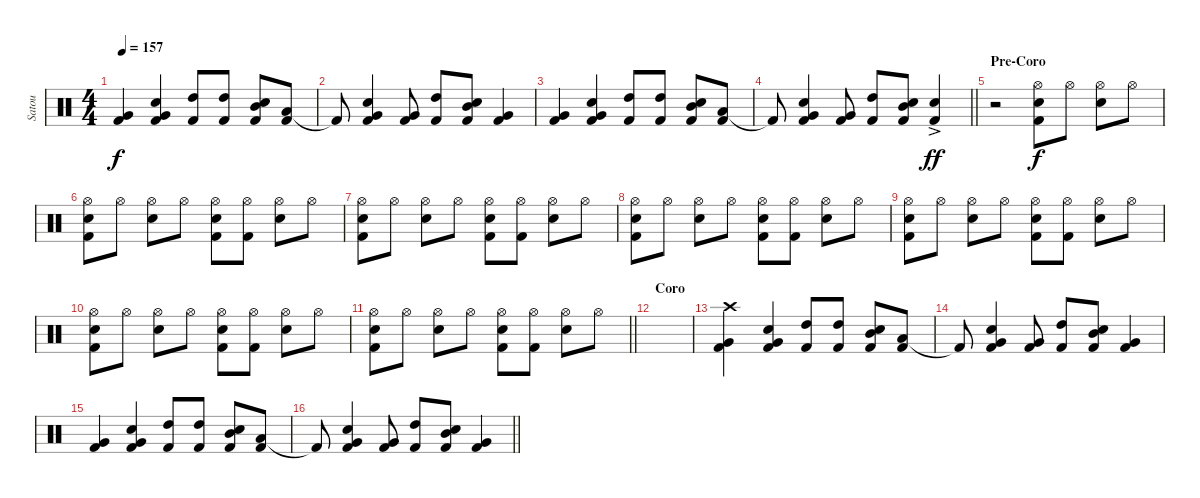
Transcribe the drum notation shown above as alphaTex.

\track ("Satou" "Satou") {instrument percussion}
\staff {score}
\articulation defaults
\ts (4 4)
\tempo 157
\clef neutral
\ks c
("Very Low Tom (hit)" "Kick (hit) 2").4{dy f} ("Very Low Tom (hit)" "Kick (hit) 2" "Snare (hit) 2").4 ("High Tom (hit)" "Kick (hit) 2").8 ("High Tom (hit)" "Kick (hit) 2").8 ("Mid Tom (hit)" "Kick (hit) 2" "Snare (hit) 2").8 ("Low Tom (hit)" "Kick (hit) 2").8 |
"Kick (hit) 2"{t}.8 ("Very Low Tom (hit)" "Kick (hit) 2" "Snare (hit) 2").4 ("Very Low Tom (hit)" "Kick (hit) 2").8 ("High Tom (hit)" "Kick (hit) 2").8 ("Mid Tom (hit)" "Kick (hit) 2" "Snare (hit) 2").8 ("Very Low Tom (hit)" "Kick (hit) 2").4 |
("Very Low Tom (hit)" "Kick (hit) 2").4 ("Very Low Tom (hit)" "Kick (hit) 2" "Snare (hit) 2").4 ("High Tom (hit)" "Kick (hit) 2").8 ("High Tom (hit)" "Kick (hit) 2").8 ("Mid Tom (hit)" "Kick (hit) 2" "Snare (hit) 2").8 ("Low Tom (hit)" "Kick (hit) 2").8 |
\barLineRight lightlight "Kick (hit) 2"{t}.8
("Very Low Tom (hit)" "Kick (hit) 2" "Snare (hit) 2").4 ("Very Low Tom (hit)" "Kick (hit) 2").8 ("High Tom (hit)" "Kick (hit) 2").8 ("Mid Tom (hit)" "Kick (hit) 2" "Snare (hit) 2").8 ("Snare (hit) 2"{ac} "Kick (hit) 2").4{dy ff} |
\section ("" "Pre-Coro")
r.2 ("Hi-Hat (open)" "Kick (hit) 2" "Snare (hit) 2").8{dy f} "Hi-Hat (open)".8 ("Hi-Hat (open)" "Snare (hit) 2").8 "Hi-Hat (open)".8 |
("Hi-Hat (open)" "Kick (hit) 2" "Snare (hit) 2").8 "Hi-Hat (open)".8 ("Hi-Hat (open)" "Snare (hit) 2").8 "Hi-Hat (open)".8 ("Hi-Hat (open)" "Kick (hit) 2" "Snare (hit) 2").8 ("Hi-Hat (open)" "Kick (hit) 2").8 ("Hi-Hat (open)" "Snare (hit) 2").8 "Hi-Hat (open)".8 |
("Hi-Hat (open)" "Kick (hit) 2" "Snare (hit) 2").8 "Hi-Hat (open)".8 ("Hi-Hat (open)" "Snare (hit) 2").8 "Hi-Hat (open)".8 ("Hi-Hat (open)" "Kick (hit) 2" "Snare (hit) 2").8 ("Hi-Hat (open)" "Kick (hit) 2").8 ("Hi-Hat (open)" "Snare (hit) 2").8 "Hi-Hat (open)".8 |
("Hi-Hat (open)" "Kick (hit) 2" "Snare (hit) 2").8 "Hi-Hat (open)".8 ("Hi-Hat (open)" "Snare (hit) 2").8 "Hi-Hat (open)".8 ("Hi-Hat (open)" "Kick (hit) 2" "Snare (hit) 2").8 ("Hi-Hat (open)" "Kick (hit) 2").8 ("Hi-Hat (open)" "Snare (hit) 2").8 "Hi-Hat (open)".8 |
("Hi-Hat (open)" "Kick (hit) 2" "Snare (hit) 2").8 "Hi-Hat (open)".8 ("Hi-Hat (open)" "Snare (hit) 2").8 "Hi-Hat (open)".8 ("Hi-Hat (open)" "Kick (hit) 2" "Snare (hit) 2").8 ("Hi-Hat (open)" "Kick (hit) 2").8 ("Hi-Hat (open)" "Snare (hit) 2").8 "Hi-Hat (open)".8 |
("Hi-Hat (open)" "Kick (hit) 2" "Snare (hit) 2").8 "Hi-Hat (open)".8 ("Hi-Hat (open)" "Snare (hit) 2").8 "Hi-Hat (open)".8 ("Hi-Hat (open)" "Kick (hit) 2" "Snare (hit) 2").8 ("Hi-Hat (open)" "Kick (hit) 2").8 ("Hi-Hat (open)" "Snare (hit) 2").8 "Hi-Hat (open)".8 |
\barLineRight lightlight
("Hi-Hat (open)" "Kick (hit) 2" "Snare (hit) 2").8 "Hi-Hat (open)".8 ("Hi-Hat (open)" "Snare (hit) 2").8 "Hi-Hat (open)".8 ("Hi-Hat (open)" "Kick (hit) 2" "Snare (hit) 2").8 ("Hi-Hat (open)" "Kick (hit) 2").8 ("Hi-Hat (open)" "Snare (hit) 2").8 "Hi-Hat (open)".8 |
\section ("" "Coro")
|
("Very Low Tom (hit)" "Kick (hit) 2" "Crash high (hit)").4 ("Very Low Tom (hit)" "Kick (hit) 2" "Snare (hit) 2").4 ("High Tom (hit)" "Kick (hit) 2").8 ("High Tom (hit)" "Kick (hit) 2").8 ("Mid Tom (hit)" "Kick (hit) 2" "Snare (hit) 2").8 ("Low Tom (hit)" "Kick (hit) 2").8 |
"Kick (hit) 2"{t}.8 ("Very Low Tom (hit)" "Kick (hit) 2" "Snare (hit) 2").4 ("Very Low Tom (hit)" "Kick (hit) 2").8 ("High Tom (hit)" "Kick (hit) 2").8 ("Mid Tom (hit)" "Kick (hit) 2" "Snare (hit) 2").8 ("Very Low Tom (hit)" "Kick (hit) 2").4 |
("Very Low Tom (hit)" "Kick (hit) 2").4 ("Very Low Tom (hit)" "Kick (hit) 2" "Snare (hit) 2").4 ("High Tom (hit)" "Kick (hit) 2").8 ("High Tom (hit)" "Kick (hit) 2").8 ("Mid Tom (hit)" "Kick (hit) 2" "Snare (hit) 2").8 ("Low Tom (hit)" "Kick (hit) 2").8 |
\barLineRight lightlight "Kick (hit) 2"{t}.8
("Very Low Tom (hit)" "Kick (hit) 2" "Snare (hit) 2").4 ("Very Low Tom (hit)" "Kick (hit) 2").8 ("High Tom (hit)" "Kick (hit) 2").8 ("Mid Tom (hit)" "Kick (hit) 2" "Snare (hit) 2").8 ("Very Low Tom (hit)" "Kick (hit) 2").4
